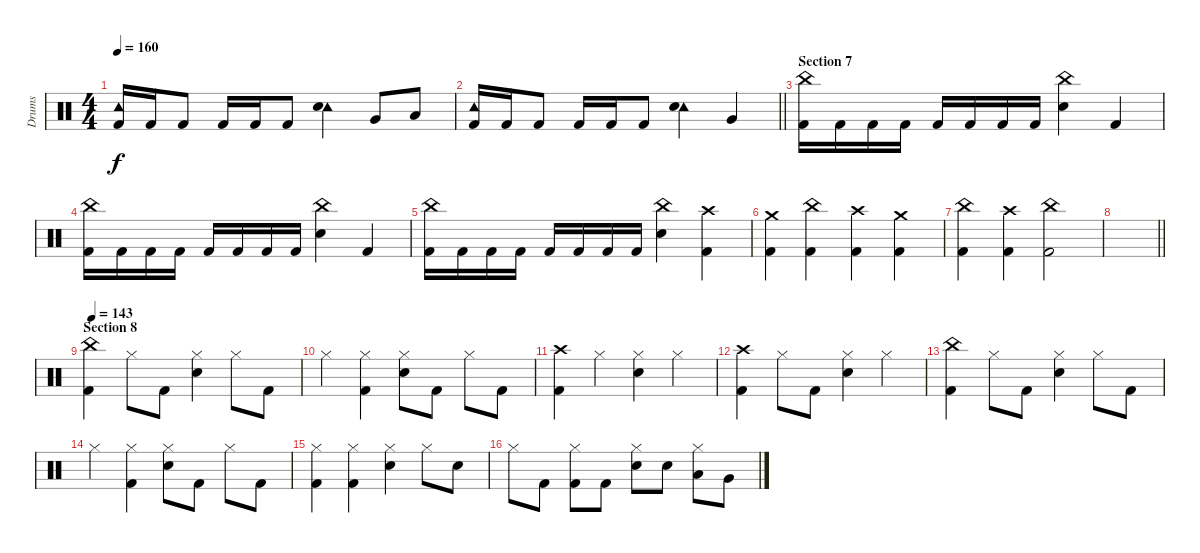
\track ("Drums" "Drums") {instrument percussion}
\staff {score}
\articulation defaults
\ts (4 4)
\tempo 160
\clef neutral
\ks c
("Tambourine (hit)" "Kick (hit) 2").16{dy f} "Kick (hit) 2".16 "Kick (hit) 2".8 "Kick (hit) 2".16 "Kick (hit) 2".16 "Kick (hit) 2".8 ("Tambourine (hit)" "Snare (hit) 2").4 "Very Low Tom (hit)".8 "Low Tom (hit)".8 |
\barLineRight lightlight
("Tambourine (hit)" "Kick (hit) 2").16 "Kick (hit) 2".16 "Kick (hit) 2".8 "Kick (hit) 2".16 "Kick (hit) 2".16 "Kick (hit) 2".8 ("Tambourine (hit)" "Snare (hit) 2").4 "Very Low Tom (hit)".4 |
\section ("" "Section 7")
("China (hit)" "Kick (hit) 2").16 "Kick (hit) 2".16 "Kick (hit) 2".16 "Kick (hit) 2".16 "Kick (hit) 2".16 "Kick (hit) 2".16 "Kick (hit) 2".16 "Kick (hit) 2".16 ("China (hit)" "Snare (hit) 2").4 "Kick (hit) 2".4 |
("China (hit)" "Kick (hit) 2").16 "Kick (hit) 2".16 "Kick (hit) 2".16 "Kick (hit) 2".16 "Kick (hit) 2".16 "Kick (hit) 2".16 "Kick (hit) 2".16 "Kick (hit) 2".16 ("China (hit)" "Snare (hit) 2").4 "Kick (hit) 2".4 |
("China (hit)" "Kick (hit) 2").16 "Kick (hit) 2".16 "Kick (hit) 2".16 "Kick (hit) 2".16 "Kick (hit) 2".16 "Kick (hit) 2".16 "Kick (hit) 2".16 "Kick (hit) 2".16 ("China (hit)" "Snare (hit) 2").4 ("Crash high (hit)" "Kick (hit) 2").4 |
("Crash medium (hit)" "Kick (hit) 2").4 ("China (hit)" "Kick (hit) 2").4 ("Crash high (hit)" "Kick (hit) 2").4 ("Crash medium (hit)" "Kick (hit) 2").4 |
("China (hit)" "Kick (hit) 2").4 ("Crash high (hit)" "Kick (hit) 2").4 ("China (hit)" "Kick (hit) 2").2 |
\barLineRight lightlight
|
\section ("" "Section 8")
\tempo 143
("China (hit)" "Kick (hit) 2").4 "Hi-Hat (closed)".8 "Kick (hit) 2".8 ("Hi-Hat (closed)" "Snare (hit) 2").4 "Hi-Hat (closed)".8 "Kick (hit) 2".8 |
"Hi-Hat (closed)".4 ("Hi-Hat (closed)" "Kick (hit) 2").4 ("Hi-Hat (closed)" "Snare (hit) 2").8 "Kick (hit) 2".8 "Hi-Hat (closed)".8 "Kick (hit) 2".8 |
("Crash high (hit)" "Kick (hit) 2").4 "Hi-Hat (closed)".4 ("Hi-Hat (closed)" "Snare (hit) 2").4 "Hi-Hat (closed)".4 |
("Crash high (hit)" "Kick (hit) 2").4 "Hi-Hat (closed)".8 "Kick (hit) 2".8 ("Hi-Hat (closed)" "Snare (hit) 2").4 "Hi-Hat (closed)".4 |
("China (hit)" "Kick (hit) 2").4 "Hi-Hat (closed)".8 "Kick (hit) 2".8 ("Hi-Hat (closed)" "Snare (hit) 2").4 "Hi-Hat (closed)".8 "Kick (hit) 2".8 |
"Hi-Hat (closed)".4 ("Hi-Hat (closed)" "Kick (hit) 2").4 ("Hi-Hat (closed)" "Snare (hit) 2").8 "Kick (hit) 2".8 "Hi-Hat (closed)".8 "Kick (hit) 2".8 |
("Hi-Hat (closed)" "Kick (hit) 2").4 ("Hi-Hat (closed)" "Kick (hit) 2").4 ("Hi-Hat (closed)" "Snare (hit) 2").4 "Hi-Hat (closed)".8 "Snare (hit) 2".8 |
"Hi-Hat (closed)".8 "Kick (hit) 2".8 ("Hi-Hat (closed)" "Kick (hit) 2").8 "Kick (hit) 2".8 ("Hi-Hat (closed)" "Snare (hit) 2").8 "Snare (hit) 2".8 ("Hi-Hat (closed)" "Low Tom (hit)").8 "Very Low Tom (hit)".8
